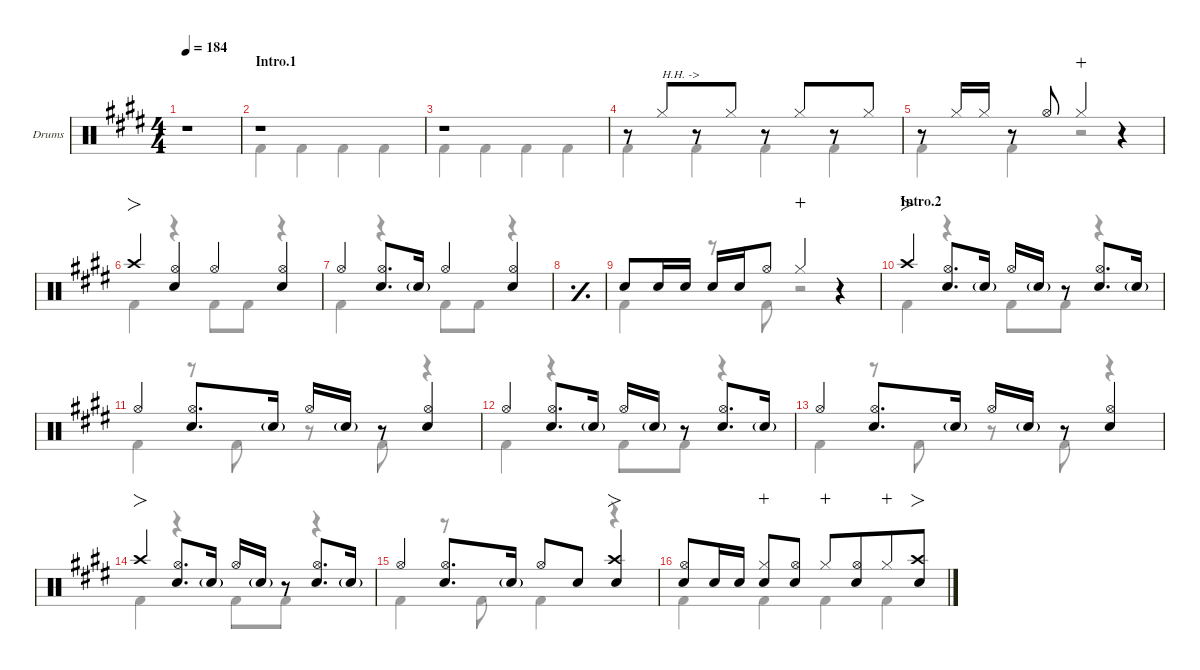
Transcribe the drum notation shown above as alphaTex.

\defaultSystemsLayout 4
\hideDynamics
\bracketExtendMode nobrackets
\firstSystemTrackNameOrientation horizontal
\track ("Drums" "Drums") {defaultSystemsLayout 4 instrument percussion}
\staff {score}
\articulation defaults
\voice
\ts (4 4)
\beaming (8 4 4)
\tempo 184
\clef neutral
\ks e
r.1{dy f} |
\section ("" "Intro.1")
r.1 |
r.1 |
r.8 "Hi-Hat (closed)"{acc forcenatural}.8{txt "H.H. ->"} r.8 "Hi-Hat (closed)"{acc forcenatural}.8 r.8 "Hi-Hat (closed)"{acc forcenatural}.8 r.8 "Hi-Hat (closed)"{acc forcenatural}.8 |
r.8 "Hi-Hat (closed)"{acc forcenatural}.16 "Hi-Hat (closed)"{acc forcenatural}.16{beam split} r.8{beam split} "Hi-Hat (open)"{acc forcenatural}.8 "Hi-Hat (closed)"{acc forcenatural}.4{dy mp wahc} r.4 |
"Crash high (hit)"{acc forcenatural}.4{fo dy f} ("Hi-Hat (open)"{acc forcenatural} "Snare (hit) 2"{acc forcenatural}).4 "Hi-Hat (open)"{acc forcenatural}.4 ("Hi-Hat (open)"{acc forcenatural} "Snare (hit) 2"{acc forcenatural}).4 |
"Hi-Hat (open)"{acc forcenatural}.4 ("Hi-Hat (open)"{acc forcenatural} "Snare (hit) 2"{acc forcenatural}).8{d} "Snare (hit) 2"{g acc forcenatural}.16{dy mf} "Hi-Hat (open)"{acc forcenatural}.4{dy f} ("Hi-Hat (open)"{acc forcenatural} "Snare (hit) 2"{acc forcenatural}).4 |
\simile simple
|
\simile none "Snare (hit) 2"{acc forcenatural}.8 "Snare (hit) 2"{acc forcenatural}.16 "Snare (hit) 2"{acc forcenatural}.16{dy mf beam split} "Snare (hit) 2"{acc forcenatural}.16{dy f} "Snare (hit) 2"{acc forcenatural}.16{dy mf} "Hi-Hat (open)"{acc forcenatural}.8{dy f} "Hi-Hat (closed)"{acc forcenatural}.4{dy mp wahc}
r.4 |
\section ("" "Intro.2")
"Crash high (hit)"{acc forcenatural}.4{fo dy f} ("Hi-Hat (open)"{acc forcenatural} "Snare (hit) 2"{acc forcenatural}).8{d} "Snare (hit) 2"{g acc forcenatural}.16{dy mf} "Hi-Hat (open)"{acc forcenatural}.16{dy f} "Snare (hit) 2"{g acc forcenatural}.16{dy mf beam split} r.8 ("Hi-Hat (open)"{acc forcenatural} "Snare (hit) 2"{acc forcenatural}).8{d dy f} "Snare (hit) 2"{g acc forcenatural}.16{dy mf} |
"Hi-Hat (open)"{acc forcenatural}.4{dy f} ("Hi-Hat (open)"{acc forcenatural} "Snare (hit) 2"{acc forcenatural}).8{d} "Snare (hit) 2"{g acc forcenatural}.16{dy mf} "Hi-Hat (open)"{acc forcenatural}.16{dy f} "Snare (hit) 2"{g acc forcenatural}.16{dy mf beam split} r.8 ("Hi-Hat (open)"{acc forcenatural} "Snare (hit) 2"{acc forcenatural}).4{dy f} |
"Hi-Hat (open)"{acc forcenatural}.4 ("Hi-Hat (open)"{acc forcenatural} "Snare (hit) 2"{acc forcenatural}).8{d} "Snare (hit) 2"{g acc forcenatural}.16{dy mf} "Hi-Hat (open)"{acc forcenatural}.16{dy f} "Snare (hit) 2"{g acc forcenatural}.16{dy mf beam split} r.8 ("Hi-Hat (open)"{acc forcenatural} "Snare (hit) 2"{acc forcenatural}).8{d dy f} "Snare (hit) 2"{g acc forcenatural}.16{dy mf} |
"Hi-Hat (open)"{acc forcenatural}.4{dy f} ("Hi-Hat (open)"{acc forcenatural} "Snare (hit) 2"{acc forcenatural}).8{d} "Snare (hit) 2"{g acc forcenatural}.16{dy mf} "Hi-Hat (open)"{acc forcenatural}.16{dy f} "Snare (hit) 2"{g acc forcenatural}.16{dy mf beam split} r.8 ("Hi-Hat (open)"{acc forcenatural} "Snare (hit) 2"{acc forcenatural}).4{dy f} |
"Crash high (hit)"{acc forcenatural}.4{fo} ("Hi-Hat (open)"{acc forcenatural} "Snare (hit) 2"{acc forcenatural}).8{d} "Snare (hit) 2"{g acc forcenatural}.16{dy mf} "Hi-Hat (open)"{acc forcenatural}.16{dy f} "Snare (hit) 2"{g acc forcenatural}.16{dy mf beam split} r.8 ("Hi-Hat (open)"{acc forcenatural} "Snare (hit) 2"{acc forcenatural}).8{d dy f} "Snare (hit) 2"{g acc forcenatural}.16{dy mf} |
"Hi-Hat (open)"{acc forcenatural}.4{dy f} ("Hi-Hat (open)"{acc forcenatural} "Snare (hit) 2"{acc forcenatural}).8{d} "Snare (hit) 2"{g acc forcenatural}.16{dy mf} "Hi-Hat (open)"{acc forcenatural}.8{dy f} "Snare (hit) 2"{acc forcenatural}.8 ("Snare (hit) 2"{acc forcenatural} "Crash high (hit)"{acc forcenatural}).4{fo} |
("Snare (hit) 2"{acc forcenatural} "Hi-Hat (open)"{acc forcenatural}).8 "Snare (hit) 2"{acc forcenatural}.16 "Snare (hit) 2"{acc forcenatural}.16{dy mf beam split} ("Hi-Hat (closed)"{acc forcenatural} "Snare (hit) 2"{acc forcenatural}).8{dy f wahc} ("Snare (hit) 2"{acc forcenatural} "Hi-Hat (open)"{acc forcenatural}).8 "Hi-Hat (closed)"{acc forcenatural}.8{dy mp wahc} ("Snare (hit) 2"{acc forcenatural} "Hi-Hat (open)"{acc forcenatural}).8{dy f} "Hi-Hat (closed)"{acc forcenatural}.8{dy mp wahc} ("Snare (hit) 2"{acc forcenatural} "Crash high (hit)"{acc forcenatural}).8{fo dy f}
\voice
\clef neutral
\ottava regular
\simile none
\ks e
|
"Kick (hit) 2"{acc forcenatural}.4 "Kick (hit) 2"{acc forcenatural}.4 "Kick (hit) 2"{acc forcenatural}.4 "Kick (hit) 2"{acc forcenatural}.4 |
"Kick (hit) 2"{acc forcenatural}.4 "Kick (hit) 2"{acc forcenatural}.4 "Kick (hit) 2"{acc forcenatural}.4 "Kick (hit) 2"{acc forcenatural}.4 |
"Kick (hit) 2"{acc forcenatural}.4 "Kick (hit) 2"{acc forcenatural}.4 "Kick (hit) 2"{acc forcenatural}.4 "Kick (hit) 2"{acc forcenatural}.4 |
"Kick (hit) 2"{acc forcenatural}.4 "Kick (hit) 2"{acc forcenatural}.4 r.2 |
"Kick (hit) 2"{acc forcenatural}.4 r.4 "Kick (hit) 2"{acc forcenatural}.8 "Kick (hit) 2"{acc forcenatural}.8 r.4 |
"Kick (hit) 2"{acc forcenatural}.4 r.4 "Kick (hit) 2"{acc forcenatural}.8 "Kick (hit) 2"{acc forcenatural}.8 r.4 |
\simile simple
|
\simile none "Kick (hit) 2"{acc forcenatural}.4
r.8 "Kick (hit) 2"{acc forcenatural}.8 r.2 |
"Kick (hit) 2"{acc forcenatural}.4 r.4 "Kick (hit) 2"{acc forcenatural}.8 "Kick (hit) 2"{acc forcenatural}.8 r.4 |
"Kick (hit) 2"{acc forcenatural}.4 r.8 "Kick (hit) 2"{acc forcenatural}.8 r.8 "Kick (hit) 2"{acc forcenatural}.8 r.4 |
"Kick (hit) 2"{acc forcenatural}.4 r.4 "Kick (hit) 2"{acc forcenatural}.8 "Kick (hit) 2"{acc forcenatural}.8 r.4 |
"Kick (hit) 2"{acc forcenatural}.4 r.8 "Kick (hit) 2"{acc forcenatural}.8 r.8 "Kick (hit) 2"{acc forcenatural}.8 r.4 |
"Kick (hit) 2"{acc forcenatural}.4 r.4 "Kick (hit) 2"{acc forcenatural}.8 "Kick (hit) 2"{acc forcenatural}.8 r.4 |
"Kick (hit) 2"{acc forcenatural}.4 r.8 "Kick (hit) 2"{acc forcenatural}.8 "Kick (hit) 2"{acc forcenatural}.4 r.4 |
"Kick (hit) 2"{acc forcenatural}.4 "Kick (hit) 2"{acc forcenatural}.4 "Kick (hit) 2"{acc forcenatural}.4 "Kick (hit) 2"{acc forcenatural}.4
